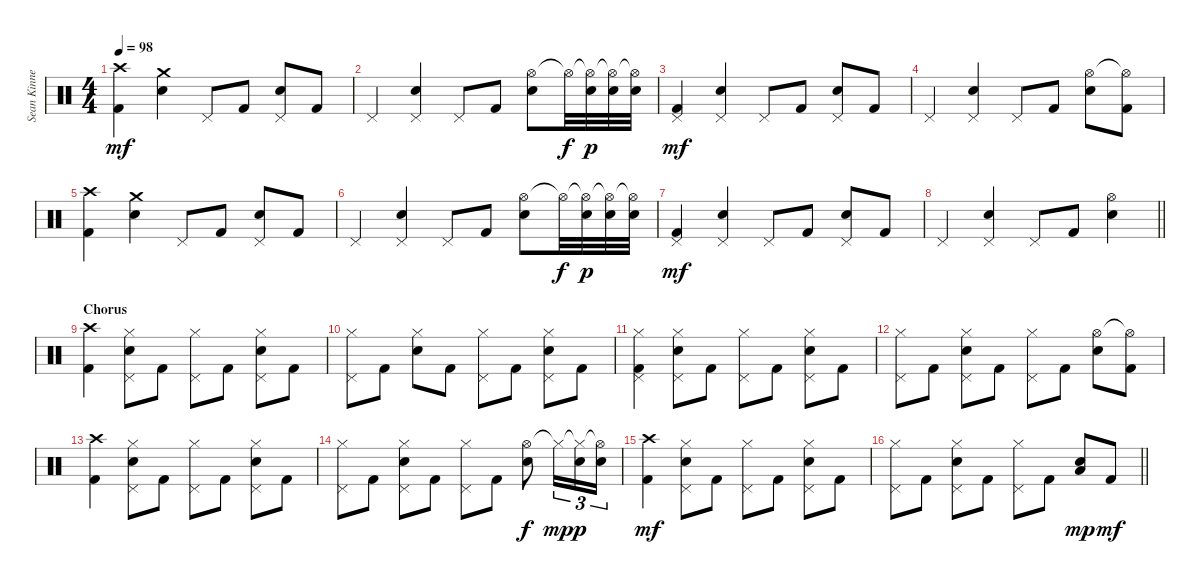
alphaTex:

\track ("Sean Kinney" "Sean Kinne") {instrument percussion}
\staff {score}
\articulation defaults
\ts (4 4)
\tempo 98
\clef neutral
\ks c
("Crash high (hit)" "Kick (hit) 2").4{dy mf} ("Crash medium (hit)" "Snare (hit) 2").4 "Pedal Hi-Hat (hit)".8 "Kick (hit) 2".8 ("Pedal Hi-Hat (hit)" "Snare (hit) 2").8 "Kick (hit) 2".8 |
"Pedal Hi-Hat (hit)".4 ("Pedal Hi-Hat (hit)" "Snare (hit) 2").4 "Pedal Hi-Hat (hit)".8 "Kick (hit) 2".8 ("Hi-Hat (open)" "Snare (hit) 2").8 "Hi-Hat (open)"{t}.32{dy f} ("Hi-Hat (open)"{t} "Snare (hit) 2").32{dy p} ("Hi-Hat (open)"{t} "Snare (hit) 2").32 ("Hi-Hat (open)"{t} "Snare (hit) 2").32 |
("Pedal Hi-Hat (hit)" "Kick (hit) 2").4{dy mf} ("Pedal Hi-Hat (hit)" "Snare (hit) 2").4 "Pedal Hi-Hat (hit)".8 "Kick (hit) 2".8 ("Pedal Hi-Hat (hit)" "Snare (hit) 2").8 "Kick (hit) 2".8 |
"Pedal Hi-Hat (hit)".4 ("Pedal Hi-Hat (hit)" "Snare (hit) 2").4 "Pedal Hi-Hat (hit)".8 "Kick (hit) 2".8 ("Hi-Hat (open)" "Snare (hit) 2").8 ("Hi-Hat (open)"{t} "Kick (hit) 2").8 |
("Crash high (hit)" "Kick (hit) 2").4 ("Crash medium (hit)" "Snare (hit) 2").4 "Pedal Hi-Hat (hit)".8 "Kick (hit) 2".8 ("Pedal Hi-Hat (hit)" "Snare (hit) 2").8 "Kick (hit) 2".8 |
"Pedal Hi-Hat (hit)".4 ("Pedal Hi-Hat (hit)" "Snare (hit) 2").4 "Pedal Hi-Hat (hit)".8 "Kick (hit) 2".8 ("Hi-Hat (open)" "Snare (hit) 2").8 "Hi-Hat (open)"{t}.32{dy f} ("Hi-Hat (open)"{t} "Snare (hit) 2").32{dy p} ("Hi-Hat (open)"{t} "Snare (hit) 2").32 ("Hi-Hat (open)"{t} "Snare (hit) 2").32 |
("Pedal Hi-Hat (hit)" "Kick (hit) 2").4{dy mf} ("Pedal Hi-Hat (hit)" "Snare (hit) 2").4 "Pedal Hi-Hat (hit)".8 "Kick (hit) 2".8 ("Pedal Hi-Hat (hit)" "Snare (hit) 2").8 "Kick (hit) 2".8 |
\barLineRight lightlight "Pedal Hi-Hat (hit)".4
("Pedal Hi-Hat (hit)" "Snare (hit) 2").4 "Pedal Hi-Hat (hit)".8 "Kick (hit) 2".8 ("Hi-Hat (open)" "Snare (hit) 2").4 |
\section ("" "Chorus")
("Crash high (hit)" "Kick (hit) 2").4 ("Hi-Hat (closed)" "Snare (hit) 2" "Pedal Hi-Hat (hit)").8 "Kick (hit) 2".8 ("Hi-Hat (closed)" "Pedal Hi-Hat (hit)").8 "Kick (hit) 2".8 ("Hi-Hat (closed)" "Snare (hit) 2" "Pedal Hi-Hat (hit)").8 "Kick (hit) 2".8 |
("Hi-Hat (closed)" "Pedal Hi-Hat (hit)").8 "Kick (hit) 2".8 ("Hi-Hat (closed)" "Snare (hit) 2").8 "Kick (hit) 2".8 ("Hi-Hat (closed)" "Pedal Hi-Hat (hit)").8 "Kick (hit) 2".8 ("Hi-Hat (closed)" "Snare (hit) 2" "Pedal Hi-Hat (hit)").8 "Kick (hit) 2".8 |
("Hi-Hat (closed)" "Pedal Hi-Hat (hit)" "Kick (hit) 2").4 ("Hi-Hat (closed)" "Snare (hit) 2" "Pedal Hi-Hat (hit)").8 "Kick (hit) 2".8 ("Hi-Hat (closed)" "Pedal Hi-Hat (hit)").8 "Kick (hit) 2".8 ("Hi-Hat (closed)" "Snare (hit) 2" "Pedal Hi-Hat (hit)").8 "Kick (hit) 2".8 |
("Hi-Hat (closed)" "Pedal Hi-Hat (hit)").8 "Kick (hit) 2".8 ("Hi-Hat (closed)" "Snare (hit) 2" "Pedal Hi-Hat (hit)").8 "Kick (hit) 2".8 ("Hi-Hat (closed)" "Pedal Hi-Hat (hit)").8 "Kick (hit) 2".8 ("Hi-Hat (open)" "Snare (hit) 2").8 ("Hi-Hat (open)"{t} "Kick (hit) 2").8 |
("Crash high (hit)" "Kick (hit) 2").4 ("Hi-Hat (closed)" "Snare (hit) 2" "Pedal Hi-Hat (hit)").8 "Kick (hit) 2".8 ("Hi-Hat (closed)" "Pedal Hi-Hat (hit)").8 "Kick (hit) 2".8 ("Hi-Hat (closed)" "Snare (hit) 2" "Pedal Hi-Hat (hit)").8 "Kick (hit) 2".8 |
("Hi-Hat (closed)" "Pedal Hi-Hat (hit)").8 "Kick (hit) 2".8 ("Hi-Hat (closed)" "Snare (hit) 2" "Pedal Hi-Hat (hit)").8 "Kick (hit) 2".8 ("Hi-Hat (closed)" "Pedal Hi-Hat (hit)").8 "Kick (hit) 2".8 ("Hi-Hat (open)" "Snare (hit) 2").8{dy f} "Hi-Hat (closed)"{t}.16{tu (3 2) dy mp} ("Hi-Hat (closed)"{t} "Snare (hit) 2").16{tu (3 2) dy p} ("Hi-Hat (open)"{t} "Snare (hit) 2").16{tu (3 2)} |
("Crash high (hit)" "Kick (hit) 2").4{dy mf} ("Hi-Hat (closed)" "Snare (hit) 2" "Pedal Hi-Hat (hit)").8 "Kick (hit) 2".8 ("Hi-Hat (closed)" "Pedal Hi-Hat (hit)").8 "Kick (hit) 2".8 ("Hi-Hat (closed)" "Snare (hit) 2" "Pedal Hi-Hat (hit)").8 "Kick (hit) 2".8 |
\barLineRight lightlight
("Hi-Hat (closed)" "Pedal Hi-Hat (hit)").8 "Kick (hit) 2".8 ("Hi-Hat (closed)" "Snare (hit) 2" "Pedal Hi-Hat (hit)").8 "Kick (hit) 2".8 ("Hi-Hat (closed)" "Pedal Hi-Hat (hit)").8 "Kick (hit) 2".8 ("Low Tom (hit)" "Snare (hit) 2").8{dy mp} "Kick (hit) 2".8{dy mf}
